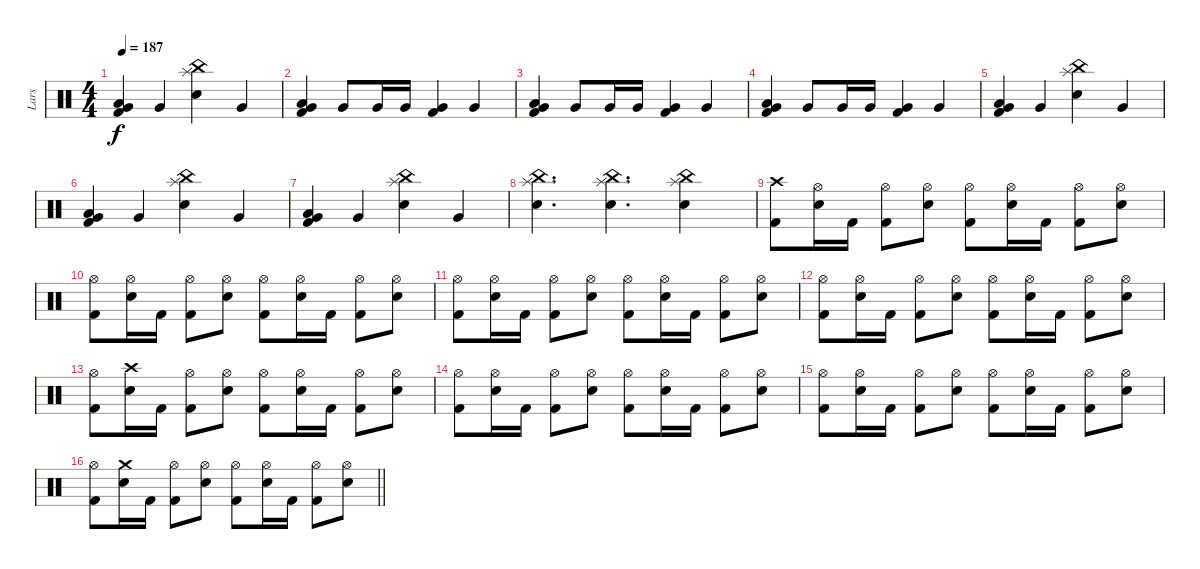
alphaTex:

\track ("Lars" "Lars") {instrument percussion}
\staff {score}
\articulation defaults
\ts (4 4)
\tempo 187
\clef neutral
\ks c
("Low Tom (hit)" "Very Low Tom (hit)" "Kick (hit) 2").4{dy f} "Very Low Tom (hit)".4 ("Splash (hit)" "China (hit)" "Snare (hit) 2").4 "Very Low Tom (hit)".4 |
("Low Tom (hit)" "Very Low Tom (hit)" "Kick (hit) 2").4 "Very Low Tom (hit)".8 "Very Low Tom (hit)".16 "Very Low Tom (hit)".16 ("Very Low Tom (hit)" "Kick (hit) 2").4 "Very Low Tom (hit)".4 |
("Low Tom (hit)" "Very Low Tom (hit)" "Kick (hit) 2").4 "Very Low Tom (hit)".8 "Very Low Tom (hit)".16 "Very Low Tom (hit)".16 ("Very Low Tom (hit)" "Kick (hit) 2").4 "Very Low Tom (hit)".4 |
("Low Tom (hit)" "Very Low Tom (hit)" "Kick (hit) 2").4 "Very Low Tom (hit)".8 "Very Low Tom (hit)".16 "Very Low Tom (hit)".16 ("Very Low Tom (hit)" "Kick (hit) 2").4 "Very Low Tom (hit)".4 |
("Low Tom (hit)" "Very Low Tom (hit)" "Kick (hit) 2").4 "Very Low Tom (hit)".4 ("Splash (hit)" "China (hit)" "Snare (hit) 2").4 "Very Low Tom (hit)".4 |
("Low Tom (hit)" "Very Low Tom (hit)" "Kick (hit) 2").4 "Very Low Tom (hit)".4 ("Splash (hit)" "China (hit)" "Snare (hit) 2").4 "Very Low Tom (hit)".4 |
("Low Tom (hit)" "Very Low Tom (hit)" "Kick (hit) 2").4 "Very Low Tom (hit)".4 ("Splash (hit)" "China (hit)" "Snare (hit) 2").4 "Very Low Tom (hit)".4 |
("Splash (hit)" "China (hit)" "Snare (hit) 2").4{d} ("Splash (hit)" "China (hit)" "Snare (hit) 2").4{d} ("Splash (hit)" "China (hit)" "Snare (hit) 2").4 |
("Crash high (hit)" "Kick (hit) 2").8 ("Hi-Hat (open)" "Snare (hit) 2").16 "Kick (hit) 2".16 ("Hi-Hat (open)" "Kick (hit) 2").8 ("Hi-Hat (open)" "Snare (hit) 2").8 ("Hi-Hat (open)" "Kick (hit) 2").8 ("Hi-Hat (open)" "Snare (hit) 2").16 "Kick (hit) 2".16 ("Hi-Hat (open)" "Kick (hit) 2").8 ("Hi-Hat (open)" "Snare (hit) 2").8 |
("Hi-Hat (open)" "Kick (hit) 2").8 ("Hi-Hat (open)" "Snare (hit) 2").16 "Kick (hit) 2".16 ("Hi-Hat (open)" "Kick (hit) 2").8 ("Hi-Hat (open)" "Snare (hit) 2").8 ("Hi-Hat (open)" "Kick (hit) 2").8 ("Hi-Hat (open)" "Snare (hit) 2").16 "Kick (hit) 2".16 ("Hi-Hat (open)" "Kick (hit) 2").8 ("Hi-Hat (open)" "Snare (hit) 2").8 |
("Hi-Hat (open)" "Kick (hit) 2").8 ("Hi-Hat (open)" "Snare (hit) 2").16 "Kick (hit) 2".16 ("Hi-Hat (open)" "Kick (hit) 2").8 ("Hi-Hat (open)" "Snare (hit) 2").8 ("Hi-Hat (open)" "Kick (hit) 2").8 ("Hi-Hat (open)" "Snare (hit) 2").16 "Kick (hit) 2".16 ("Hi-Hat (open)" "Kick (hit) 2").8 ("Hi-Hat (open)" "Snare (hit) 2").8 |
("Hi-Hat (open)" "Kick (hit) 2").8 ("Hi-Hat (open)" "Snare (hit) 2").16 "Kick (hit) 2".16 ("Hi-Hat (open)" "Kick (hit) 2").8 ("Hi-Hat (open)" "Snare (hit) 2").8 ("Hi-Hat (open)" "Kick (hit) 2").8 ("Hi-Hat (open)" "Snare (hit) 2").16 "Kick (hit) 2".16 ("Hi-Hat (open)" "Kick (hit) 2").8 ("Hi-Hat (open)" "Snare (hit) 2").8 |
("Hi-Hat (open)" "Kick (hit) 2").8 ("Crash high (hit)" "Snare (hit) 2").16 "Kick (hit) 2".16 ("Hi-Hat (open)" "Kick (hit) 2").8 ("Hi-Hat (open)" "Snare (hit) 2").8 ("Hi-Hat (open)" "Kick (hit) 2").8 ("Hi-Hat (open)" "Snare (hit) 2").16 "Kick (hit) 2".16 ("Hi-Hat (open)" "Kick (hit) 2").8 ("Hi-Hat (open)" "Snare (hit) 2").8 |
("Hi-Hat (open)" "Kick (hit) 2").8 ("Hi-Hat (open)" "Snare (hit) 2").16 "Kick (hit) 2".16 ("Hi-Hat (open)" "Kick (hit) 2").8 ("Hi-Hat (open)" "Snare (hit) 2").8 ("Hi-Hat (open)" "Kick (hit) 2").8 ("Hi-Hat (open)" "Snare (hit) 2").16 "Kick (hit) 2".16 ("Hi-Hat (open)" "Kick (hit) 2").8 ("Hi-Hat (open)" "Snare (hit) 2").8 |
("Hi-Hat (open)" "Kick (hit) 2").8 ("Hi-Hat (open)" "Snare (hit) 2").16 "Kick (hit) 2".16 ("Hi-Hat (open)" "Kick (hit) 2").8 ("Hi-Hat (open)" "Snare (hit) 2").8 ("Hi-Hat (open)" "Kick (hit) 2").8 ("Hi-Hat (open)" "Snare (hit) 2").16 "Kick (hit) 2".16 ("Hi-Hat (open)" "Kick (hit) 2").8 ("Hi-Hat (open)" "Snare (hit) 2").8 |
\barLineRight lightlight
("Hi-Hat (open)" "Kick (hit) 2").8 ("Crash medium (hit)" "Snare (hit) 2").16 "Kick (hit) 2".16 ("Hi-Hat (open)" "Kick (hit) 2").8 ("Hi-Hat (open)" "Snare (hit) 2").8 ("Hi-Hat (open)" "Kick (hit) 2").8 ("Hi-Hat (open)" "Snare (hit) 2").16 "Kick (hit) 2".16 ("Hi-Hat (open)" "Kick (hit) 2").8 ("Hi-Hat (open)" "Snare (hit) 2").8
